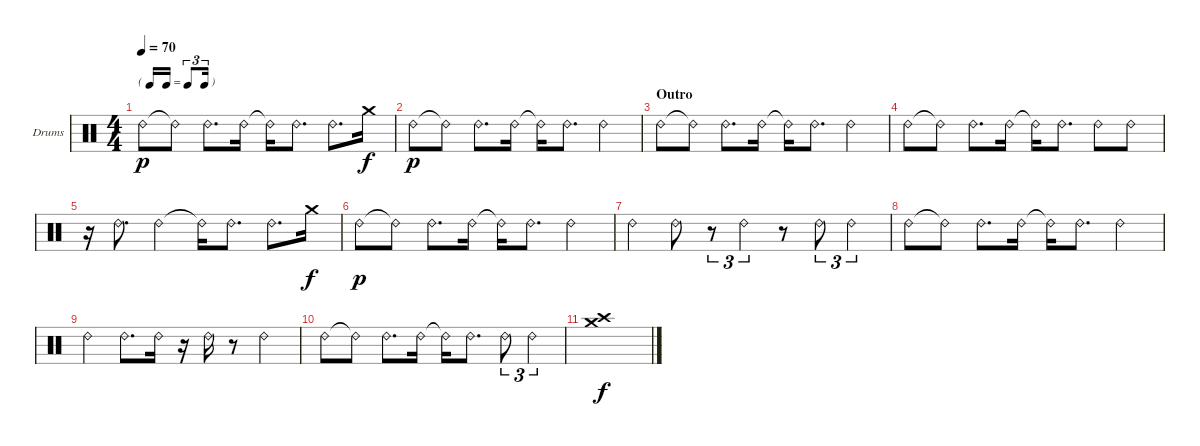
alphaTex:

\bracketExtendMode groupsimilarinstruments
\firstSystemTrackNameOrientation horizontal
\otherSystemsTrackNameOrientation horizontal
\track ("OH" "Drums") {instrument percussion}
\staff {score}
\articulation defaults
\ts (4 4)
\tf triplet16th
\tempo 70
\clef neutral
\ks aminor "Ride (bell) 2".8{dy p} "Ride (bell) 2"{t}.8 "Ride (bell) 2".8{d} "Ride (bell) 2".16 "Ride (bell) 2"{t}.16 "Ride (bell) 2".8{d} "Ride (bell) 2".8{d} "Crash medium (hit)".16{dy f}
|
\scale
0.333333 "Ride (bell) 2".8{dy p} "Ride (bell) 2"{t}.8 "Ride (bell) 2".8{d} "Ride (bell) 2".16 "Ride (bell) 2"{t}.16 "Ride (bell) 2".8{d} "Ride (bell) 2".4 |
\section ("" "Outro")
\scale
0.333333 "Ride (bell) 2".8 "Ride (bell) 2"{t}.8 "Ride (bell) 2".8{d} "Ride (bell) 2".16 "Ride (bell) 2"{t}.16 "Ride (bell) 2".8{d} "Ride (bell) 2".4 |
\scale
0.333333 "Ride (bell) 2".8 "Ride (bell) 2"{t}.8 "Ride (bell) 2".8{d} "Ride (bell) 2".16 "Ride (bell) 2"{t}.16 "Ride (bell) 2".8{d} "Ride (bell) 2".8 "Ride (bell) 2".8 |
\scale
0.333333 r.16 "Ride (bell) 2".8{d} "Ride (bell) 2".4 "Ride (bell) 2"{t}.16 "Ride (bell) 2".8{d} "Ride (bell) 2".8{d} "Crash medium (hit)".16{dy f} |
\scale
0.333333 "Ride (bell) 2".8{dy p} "Ride (bell) 2"{t}.8 "Ride (bell) 2".8{d} "Ride (bell) 2".16 "Ride (bell) 2"{t}.16 "Ride (bell) 2".8{d} "Ride (bell) 2".4 |
\scale
0.333333 "Ride (bell) 2".4 "Ride (bell) 2".8 r.8{tu (3 2)} "Ride (bell) 2".4{tu (3 2)} r.8 "Ride (bell) 2".8{tu (3 2)} "Ride (bell) 2".4{tu (3 2)} |
\scale
0.333333 "Ride (bell) 2".8 "Ride (bell) 2"{t}.8 "Ride (bell) 2".8{d} "Ride (bell) 2".16 "Ride (bell) 2"{t}.16 "Ride (bell) 2".8{d} "Ride (bell) 2".4 |
\scale
0.333333 "Ride (bell) 2".4 "Ride (bell) 2".8{d} "Ride (bell) 2".16 r.16 "Ride (bell) 2".16 r.8 "Ride (bell) 2".4 |
\scale
0.607407 "Ride (bell) 2".8 "Ride (bell) 2"{t}.8 "Ride (bell) 2".8{d} "Ride (bell) 2".16 "Ride (bell) 2"{t}.16 "Ride (bell) 2".8{d} "Ride (bell) 2".8{tu (3 2)} "Ride (bell) 2".4{tu (3 2)} |
\scale
0.167099 ("Crash medium (hit)" "Crash high (hit)").1{dy f} |
\scale
0.058295
